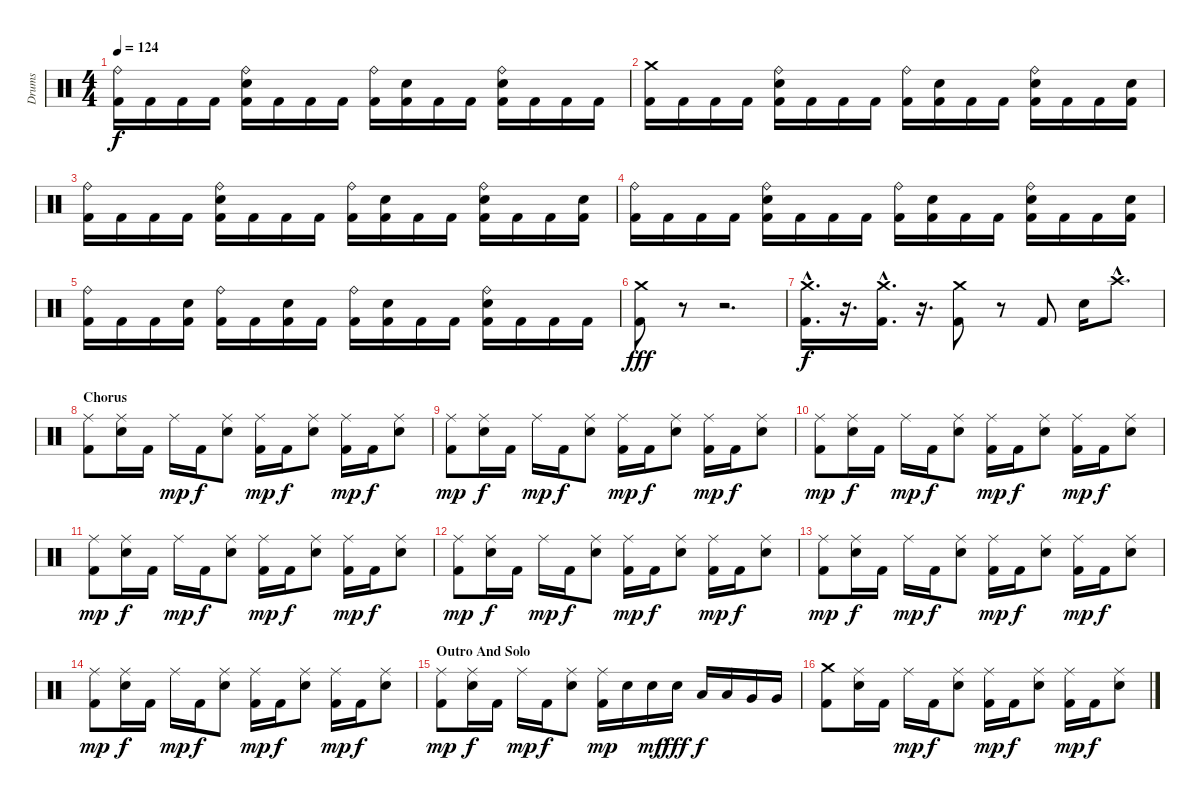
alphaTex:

\track ("Drums" "Drums") {instrument percussion}
\staff {score}
\articulation defaults
\ts (4 4)
\tempo 124
\clef neutral
\ks c
("Ride (bell)" "Kick (hit) 2").16{dy f} "Kick (hit) 2".16 "Kick (hit) 2".16 "Kick (hit) 2".16 ("Ride (bell)" "Snare (hit) 2" "Kick (hit) 2").16 "Kick (hit) 2".16 "Kick (hit) 2".16 "Kick (hit) 2".16 ("Ride (bell)" "Kick (hit) 2").16 ("Snare (hit) 2" "Kick (hit) 2").16 "Kick (hit) 2".16 "Kick (hit) 2".16 ("Ride (bell)" "Snare (hit) 2" "Kick (hit) 2").16 "Kick (hit) 2".16 "Kick (hit) 2".16 "Kick (hit) 2".16 |
("Crash medium (hit)" "Kick (hit) 2").16 "Kick (hit) 2".16 "Kick (hit) 2".16 "Kick (hit) 2".16 ("Ride (bell)" "Snare (hit) 2" "Kick (hit) 2").16 "Kick (hit) 2".16 "Kick (hit) 2".16 "Kick (hit) 2".16 ("Ride (bell)" "Kick (hit) 2").16 ("Snare (hit) 2" "Kick (hit) 2").16 "Kick (hit) 2".16 "Kick (hit) 2".16 ("Ride (bell)" "Snare (hit) 2" "Kick (hit) 2").16 "Kick (hit) 2".16 "Kick (hit) 2".16 ("Snare (hit) 2" "Kick (hit) 2").16 |
("Ride (bell)" "Kick (hit) 2").16 "Kick (hit) 2".16 "Kick (hit) 2".16 "Kick (hit) 2".16 ("Ride (bell)" "Snare (hit) 2" "Kick (hit) 2").16 "Kick (hit) 2".16 "Kick (hit) 2".16 "Kick (hit) 2".16 ("Ride (bell)" "Kick (hit) 2").16 ("Snare (hit) 2" "Kick (hit) 2").16 "Kick (hit) 2".16 "Kick (hit) 2".16 ("Ride (bell)" "Snare (hit) 2" "Kick (hit) 2").16 "Kick (hit) 2".16 "Kick (hit) 2".16 ("Snare (hit) 2" "Kick (hit) 2").16 |
("Ride (bell)" "Kick (hit) 2").16 "Kick (hit) 2".16 "Kick (hit) 2".16 "Kick (hit) 2".16 ("Ride (bell)" "Snare (hit) 2" "Kick (hit) 2").16 "Kick (hit) 2".16 "Kick (hit) 2".16 "Kick (hit) 2".16 ("Ride (bell)" "Kick (hit) 2").16 ("Snare (hit) 2" "Kick (hit) 2").16 "Kick (hit) 2".16 "Kick (hit) 2".16 ("Ride (bell)" "Snare (hit) 2" "Kick (hit) 2").16 "Kick (hit) 2".16 "Kick (hit) 2".16 ("Snare (hit) 2" "Kick (hit) 2").16 |
("Ride (bell)" "Kick (hit) 2").16 "Kick (hit) 2".16 "Kick (hit) 2".16 ("Snare (hit) 2" "Kick (hit) 2").16 ("Ride (bell)" "Kick (hit) 2").16 "Kick (hit) 2".16 ("Snare (hit) 2" "Kick (hit) 2").16 "Kick (hit) 2".16 ("Ride (bell)" "Kick (hit) 2").16 ("Snare (hit) 2" "Kick (hit) 2").16 "Kick (hit) 2".16 "Kick (hit) 2".16 ("Ride (bell)" "Snare (hit) 2" "Kick (hit) 2").16 "Kick (hit) 2".16 "Kick (hit) 2".16 "Kick (hit) 2".16 |
("Crash medium (hit)" "Kick (hit) 2").8{dy fff} r.8{volume 0} r.2{d} |
("Crash medium (hit)"{hac} "Kick (hit) 2"{hac}).16{d dy f volume 16} r.16{d volume 0} ("Crash medium (hit)"{hac} "Kick (hit) 2"{hac}).16{d volume 16} r.16{d volume 0} ("Crash medium (hit)" "Kick (hit) 2").8{volume 16} r.8{volume 0} "Kick (hit) 2".8{volume 16} "Snare (hit) 2".16 "Crash high (hit)"{hac}.8{d} |
\section ("" "Chorus")
("Ride (middle)" "Kick (hit) 2").8 ("Ride (middle)" "Snare (hit) 2").16 "Kick (hit) 2".16 "Ride (middle)".16{dy mp} "Kick (hit) 2".16{dy f} ("Ride (middle)" "Snare (hit) 2").8 ("Ride (middle)" "Kick (hit) 2").16{dy mp} "Kick (hit) 2".16{dy f} ("Ride (middle)" "Snare (hit) 2").8 ("Ride (middle)" "Kick (hit) 2").16{dy mp} "Kick (hit) 2".16{dy f} ("Ride (middle)" "Snare (hit) 2").8 |
("Ride (middle)" "Kick (hit) 2").8{dy mp} ("Ride (middle)" "Snare (hit) 2").16{dy f} "Kick (hit) 2".16 "Ride (middle)".16{dy mp} "Kick (hit) 2".16{dy f} ("Ride (middle)" "Snare (hit) 2").8 ("Ride (middle)" "Kick (hit) 2").16{dy mp} "Kick (hit) 2".16{dy f} ("Ride (middle)" "Snare (hit) 2").8 ("Ride (middle)" "Kick (hit) 2").16{dy mp} "Kick (hit) 2".16{dy f} ("Ride (middle)" "Snare (hit) 2").8 |
("Ride (middle)" "Kick (hit) 2").8{dy mp} ("Ride (middle)" "Snare (hit) 2").16{dy f} "Kick (hit) 2".16 "Ride (middle)".16{dy mp} "Kick (hit) 2".16{dy f} ("Ride (middle)" "Snare (hit) 2").8 ("Ride (middle)" "Kick (hit) 2").16{dy mp} "Kick (hit) 2".16{dy f} ("Ride (middle)" "Snare (hit) 2").8 ("Ride (middle)" "Kick (hit) 2").16{dy mp} "Kick (hit) 2".16{dy f} ("Ride (middle)" "Snare (hit) 2").8 |
("Ride (middle)" "Kick (hit) 2").8{dy mp} ("Ride (middle)" "Snare (hit) 2").16{dy f} "Kick (hit) 2".16 "Ride (middle)".16{dy mp} "Kick (hit) 2".16{dy f} ("Ride (middle)" "Snare (hit) 2").8 ("Ride (middle)" "Kick (hit) 2").16{dy mp} "Kick (hit) 2".16{dy f} ("Ride (middle)" "Snare (hit) 2").8 ("Ride (middle)" "Kick (hit) 2").16{dy mp} "Kick (hit) 2".16{dy f} ("Ride (middle)" "Snare (hit) 2").8 |
("Ride (middle)" "Kick (hit) 2").8{dy mp} ("Ride (middle)" "Snare (hit) 2").16{dy f} "Kick (hit) 2".16 "Ride (middle)".16{dy mp} "Kick (hit) 2".16{dy f} ("Ride (middle)" "Snare (hit) 2").8 ("Ride (middle)" "Kick (hit) 2").16{dy mp} "Kick (hit) 2".16{dy f} ("Ride (middle)" "Snare (hit) 2").8 ("Ride (middle)" "Kick (hit) 2").16{dy mp} "Kick (hit) 2".16{dy f} ("Ride (middle)" "Snare (hit) 2").8 |
("Ride (middle)" "Kick (hit) 2").8{dy mp} ("Ride (middle)" "Snare (hit) 2").16{dy f} "Kick (hit) 2".16 "Ride (middle)".16{dy mp} "Kick (hit) 2".16{dy f} ("Ride (middle)" "Snare (hit) 2").8 ("Ride (middle)" "Kick (hit) 2").16{dy mp} "Kick (hit) 2".16{dy f} ("Ride (middle)" "Snare (hit) 2").8 ("Ride (middle)" "Kick (hit) 2").16{dy mp} "Kick (hit) 2".16{dy f} ("Ride (middle)" "Snare (hit) 2").8 |
("Ride (middle)" "Kick (hit) 2").8{dy mp} ("Ride (middle)" "Snare (hit) 2").16{dy f} "Kick (hit) 2".16 "Ride (middle)".16{dy mp} "Kick (hit) 2".16{dy f} ("Ride (middle)" "Snare (hit) 2").8 ("Ride (middle)" "Kick (hit) 2").16{dy mp} "Kick (hit) 2".16{dy f} ("Ride (middle)" "Snare (hit) 2").8 ("Ride (middle)" "Kick (hit) 2").16{dy mp} "Kick (hit) 2".16{dy f} ("Ride (middle)" "Snare (hit) 2").8 |
\section ("" "Outro And Solo")
("Ride (middle)" "Kick (hit) 2").8{dy mp} ("Ride (middle)" "Snare (hit) 2").16{dy f} "Kick (hit) 2".16 "Ride (middle)".16{dy mp} "Kick (hit) 2".16{dy f} ("Ride (middle)" "Snare (hit) 2").8 ("Ride (middle)" "Kick (hit) 2").16{dy mp} "Snare (hit) 2".16 "Snare (hit) 2".16{dy mf} "Snare (hit) 2".16{dy fff} "Low Tom (hit)".16{dy f} "Low Tom (hit)".16 "Very Low Tom (hit)".16 "Very Low Tom (hit)".16 |
("Crash medium (hit)" "Kick (hit) 2").8 ("Ride (middle)" "Snare (hit) 2").16 "Kick (hit) 2".16 "Ride (middle)".16{dy mp} "Kick (hit) 2".16{dy f} ("Ride (middle)" "Snare (hit) 2").8 ("Ride (middle)" "Kick (hit) 2").16{dy mp} "Kick (hit) 2".16{dy f} ("Ride (middle)" "Snare (hit) 2").8 ("Ride (middle)" "Kick (hit) 2").16{dy mp} "Kick (hit) 2".16{dy f} ("Ride (middle)" "Snare (hit) 2").8
